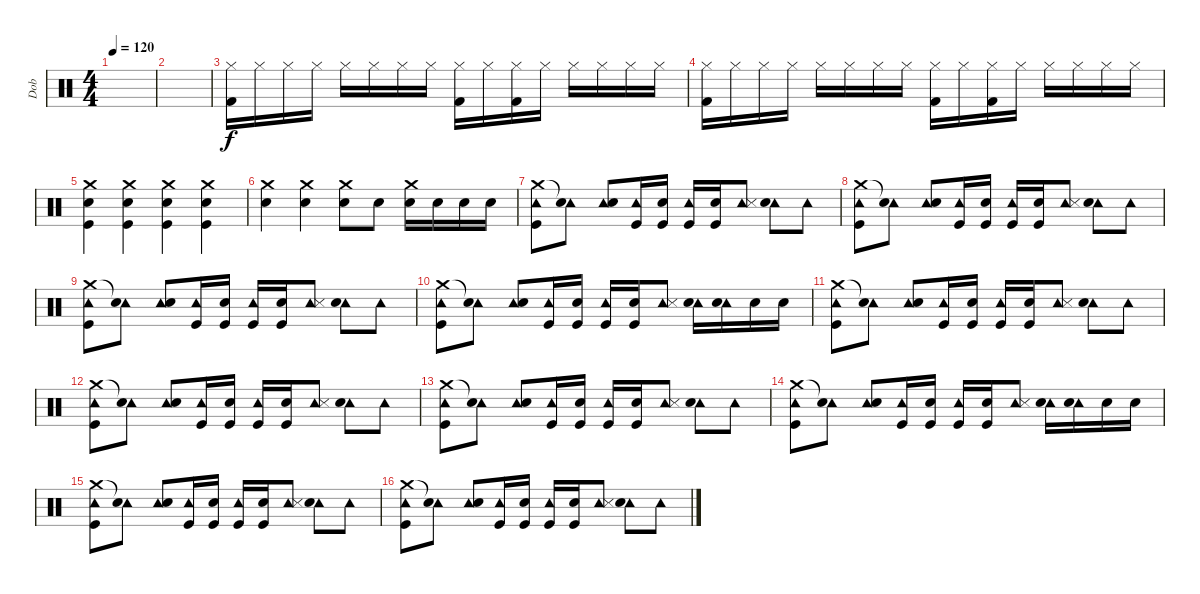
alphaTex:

\track ("Dob" "Dob") {instrument percussion}
\staff {score}
\articulation defaults
\ts (4 4)
\tempo 120
\clef neutral
\ks c
|
|
("Hi-Hat (closed)" "Kick (hit) 2").16 "Hi-Hat (closed)".16 "Hi-Hat (closed)".16 "Hi-Hat (closed)".16 "Hi-Hat (closed)".16 "Hi-Hat (closed)".16 "Hi-Hat (closed)".16 "Hi-Hat (closed)".16 ("Hi-Hat (closed)" "Kick (hit) 2").16 "Hi-Hat (closed)".16 ("Hi-Hat (closed)" "Kick (hit) 2").16 "Hi-Hat (closed)".16 "Hi-Hat (closed)".16 "Hi-Hat (closed)".16 "Hi-Hat (closed)".16 "Hi-Hat (closed)".16 |
("Hi-Hat (closed)" "Kick (hit) 2").16 "Hi-Hat (closed)".16 "Hi-Hat (closed)".16 "Hi-Hat (closed)".16 "Hi-Hat (closed)".16 "Hi-Hat (closed)".16 "Hi-Hat (closed)".16 "Hi-Hat (closed)".16 ("Hi-Hat (closed)" "Kick (hit) 2").16 "Hi-Hat (closed)".16 ("Hi-Hat (closed)" "Kick (hit) 2").16 "Hi-Hat (closed)".16 "Hi-Hat (closed)".16 "Hi-Hat (closed)".16 "Hi-Hat (closed)".16 "Hi-Hat (closed)".16 |
("Crash medium (hit)" "Snare (hit) 2" "Kick (hit)").4 ("Crash medium (hit)" "Snare (hit) 2" "Kick (hit)").4 ("Crash medium (hit)" "Snare (hit) 2" "Kick (hit)").4 ("Crash medium (hit)" "Snare (hit) 2" "Kick (hit)").4 |
("Crash medium (hit)" "Snare (hit) 2").4 ("Crash medium (hit)" "Snare (hit) 2").4 ("Crash medium (hit)" "Snare (hit) 2").8 "Snare (hit) 2".8 ("Crash medium (hit)" "Snare (hit) 2").16 "Snare (hit) 2".16 "Snare (hit) 2".16 "Snare (hit) 2".16 |
("Tambourine (hit)" "Crash medium (hit)" "Kick (hit)").8 ("Tambourine (hit)" "Snare (hit)"{t}).8 ("Tambourine (hit)" "Snare (hit) 2").8 ("Tambourine (hit)" "Kick (hit)").16 ("Snare (hit) 2" "Kick (hit)").16 ("Tambourine (hit)" "Kick (hit)").16 ("Snare (hit) 2" "Kick (hit)").16 ("Tambourine (hit)" "Snare (side stick) 3").8 ("Tambourine (hit)" "Snare (hit) 2").8 "Tambourine (hit)".8 |
("Tambourine (hit)" "Crash medium (hit)" "Kick (hit)").8 ("Tambourine (hit)" "Snare (hit)"{t}).8 ("Tambourine (hit)" "Snare (hit) 2").8 ("Tambourine (hit)" "Kick (hit)").16 ("Snare (hit) 2" "Kick (hit)").16 ("Tambourine (hit)" "Kick (hit)").16 ("Snare (hit) 2" "Kick (hit)").16 ("Tambourine (hit)" "Snare (side stick) 3").8 ("Tambourine (hit)" "Snare (hit) 2").8 "Tambourine (hit)".8 |
("Tambourine (hit)" "Crash medium (hit)" "Kick (hit)").8 ("Tambourine (hit)" "Snare (hit)"{t}).8 ("Tambourine (hit)" "Snare (hit) 2").8 ("Tambourine (hit)" "Kick (hit)").16 ("Snare (hit) 2" "Kick (hit)").16 ("Tambourine (hit)" "Kick (hit)").16 ("Snare (hit) 2" "Kick (hit)").16 ("Tambourine (hit)" "Snare (side stick) 3").8 ("Tambourine (hit)" "Snare (hit) 2").8 "Tambourine (hit)".8 |
("Tambourine (hit)" "Crash medium (hit)" "Kick (hit)").8 ("Tambourine (hit)" "Snare (hit)"{t}).8 ("Tambourine (hit)" "Snare (hit) 2").8 ("Tambourine (hit)" "Kick (hit)").16 ("Snare (hit) 2" "Kick (hit)").16 ("Tambourine (hit)" "Kick (hit)").16 ("Snare (hit) 2" "Kick (hit)").16 ("Tambourine (hit)" "Snare (side stick) 3").8 ("Tambourine (hit)" "Snare (hit) 2").16 ("Tambourine (hit)" "Snare (hit) 2").16 "Snare (hit) 2".16 "Snare (hit) 2".16 |
("Tambourine (hit)" "Crash medium (hit)" "Kick (hit)").8 ("Tambourine (hit)" "Snare (hit)"{t}).8 ("Tambourine (hit)" "Snare (hit) 2").8 ("Tambourine (hit)" "Kick (hit)").16 ("Snare (hit) 2" "Kick (hit)").16 ("Tambourine (hit)" "Kick (hit)").16 ("Snare (hit) 2" "Kick (hit)").16 ("Tambourine (hit)" "Snare (side stick) 3").8 ("Tambourine (hit)" "Snare (hit) 2").8 "Tambourine (hit)".8 |
("Tambourine (hit)" "Crash medium (hit)" "Kick (hit)").8 ("Tambourine (hit)" "Snare (hit)"{t}).8 ("Tambourine (hit)" "Snare (hit) 2").8 ("Tambourine (hit)" "Kick (hit)").16 ("Snare (hit) 2" "Kick (hit)").16 ("Tambourine (hit)" "Kick (hit)").16 ("Snare (hit) 2" "Kick (hit)").16 ("Tambourine (hit)" "Snare (side stick) 3").8 ("Tambourine (hit)" "Snare (hit) 2").8 "Tambourine (hit)".8 |
("Tambourine (hit)" "Crash medium (hit)" "Kick (hit)").8 ("Tambourine (hit)" "Snare (hit)"{t}).8 ("Tambourine (hit)" "Snare (hit) 2").8 ("Tambourine (hit)" "Kick (hit)").16 ("Snare (hit) 2" "Kick (hit)").16 ("Tambourine (hit)" "Kick (hit)").16 ("Snare (hit) 2" "Kick (hit)").16 ("Tambourine (hit)" "Snare (side stick) 3").8 ("Tambourine (hit)" "Snare (hit) 2").8 "Tambourine (hit)".8 |
("Tambourine (hit)" "Crash medium (hit)" "Kick (hit)").8 ("Tambourine (hit)" "Snare (hit)"{t}).8 ("Tambourine (hit)" "Snare (hit) 2").8 ("Tambourine (hit)" "Kick (hit)").16 ("Snare (hit) 2" "Kick (hit)").16 ("Tambourine (hit)" "Kick (hit)").16 ("Snare (hit) 2" "Kick (hit)").16 ("Tambourine (hit)" "Snare (side stick) 3").8 ("Tambourine (hit)" "Snare (hit) 2").16 ("Tambourine (hit)" "Snare (hit) 2").16 "Snare (hit) 2".16 "Snare (hit) 2".16 |
("Tambourine (hit)" "Crash medium (hit)" "Kick (hit)").8 ("Tambourine (hit)" "Snare (hit)"{t}).8 ("Tambourine (hit)" "Snare (hit) 2").8 ("Tambourine (hit)" "Kick (hit)").16 ("Snare (hit) 2" "Kick (hit)").16 ("Tambourine (hit)" "Kick (hit)").16 ("Snare (hit) 2" "Kick (hit)").16 ("Tambourine (hit)" "Snare (side stick) 3").8 ("Tambourine (hit)" "Snare (hit) 2").8 "Tambourine (hit)".8 |
("Tambourine (hit)" "Crash medium (hit)" "Kick (hit)").8 ("Tambourine (hit)" "Snare (hit)"{t}).8 ("Tambourine (hit)" "Snare (hit) 2").8 ("Tambourine (hit)" "Kick (hit)").16 ("Snare (hit) 2" "Kick (hit)").16 ("Tambourine (hit)" "Kick (hit)").16 ("Snare (hit) 2" "Kick (hit)").16 ("Tambourine (hit)" "Snare (side stick) 3").8 ("Tambourine (hit)" "Snare (hit) 2").8 "Tambourine (hit)".8
